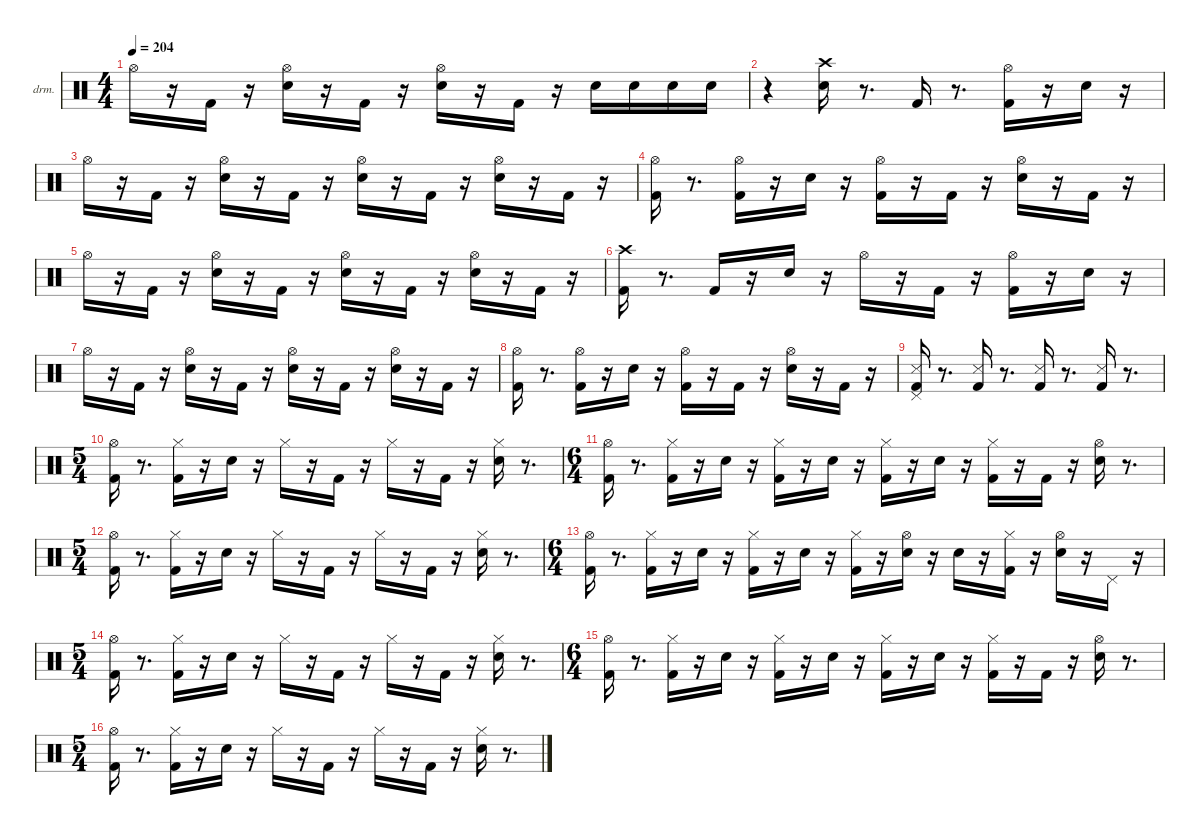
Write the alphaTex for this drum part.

\hideDynamics
\bracketExtendMode nobrackets
\firstSystemTrackNameOrientation horizontal
\track ("drums" "drm.") {instrument percussion}
\staff {score}
\articulation defaults
\ts (4 4)
\tempo 204
\clef neutral
\ks aminor "Hi-Hat (open)"{acc #}.16{dy fff beam Down}
r.16{beam Down} "Kick (hit) 2".16{dy ff beam Down} r.16{beam Down} ("Snare (hit) 2" "Hi-Hat (open)"{acc #}).16{beam Down} r.16{beam Down} "Kick (hit) 2".16{beam Down} r.16{beam Down} ("Snare (hit) 2" "Hi-Hat (open)"{acc #}).16{beam Down} r.16{beam Down} "Kick (hit) 2".16{beam Down} r.16{beam Down} "Snare (hit) 2".16{beam Down} "Snare (hit) 2".16{dy mf beam Down} "Snare (hit) 2".16{dy f beam Down} "Snare (hit) 2".16{dy ff beam Down} |
r.4{beam Down} ("Snare (hit) 2" "Crash high (hit)"{acc #}).16{beam Down} r.8{d beam Down} "Kick (hit) 2".16{beam Up} r.8{d beam Down} ("Kick (hit) 2" "Hi-Hat (open)"{acc #}).16{dy fff beam Down} r.16{beam Down} "Snare (hit) 2".16{dy ff beam Down} r.16{beam Down} |
"Hi-Hat (open)"{acc #}.16{dy fff beam Down} r.16{beam Down} "Kick (hit) 2".16{dy ff beam Down} r.16{beam Down} ("Snare (hit) 2" "Hi-Hat (open)"{acc #}).16{beam Down} r.16{beam Down} "Kick (hit) 2".16{beam Down} r.16{beam Down} ("Snare (hit) 2" "Hi-Hat (open)"{acc #}).16{beam Down} r.16{beam Down} "Kick (hit) 2".16{beam Down} r.16{beam Down} ("Snare (hit) 2" "Hi-Hat (open)"{acc #}).16{beam Down} r.16{beam Down} "Kick (hit) 2".16{dy mf beam Down} r.16{beam Down} |
("Kick (hit) 2" "Hi-Hat (open)"{acc #}).16{dy fff beam Down} r.8{d beam Down} ("Kick (hit) 2" "Hi-Hat (open)"{acc #}).16{dy ff beam Down} r.16{beam Down} "Snare (hit) 2".16{beam Down} r.16{beam Down} ("Kick (hit) 2" "Hi-Hat (open)"{acc #}).16{dy mf beam Down} r.16{beam Down} "Kick (hit) 2".16{dy ff beam Down} r.16{beam Down} ("Snare (hit) 2" "Hi-Hat (open)"{acc #}).16{dy mf beam Down} r.16{beam Down} "Kick (hit) 2".16{dy ff beam Down} r.16{beam Down} |
"Hi-Hat (open)"{acc #}.16{dy fff beam Down} r.16{beam Down} "Kick (hit) 2".16{dy ff beam Down} r.16{beam Down} ("Snare (hit) 2" "Hi-Hat (open)"{acc #}).16{beam Down} r.16{beam Down} "Kick (hit) 2".16{beam Down} r.16{beam Down} ("Snare (hit) 2" "Hi-Hat (open)"{acc #}).16{beam Down} r.16{beam Down} "Kick (hit) 2".16{beam Down} r.16{beam Down} ("Snare (hit) 2" "Hi-Hat (open)"{acc #}).16{beam Down} r.16{beam Down} "Kick (hit) 2".16{dy mf beam Down} r.16{beam Down} |
("Kick (hit) 2" "Crash high (hit)"{acc #}).16{dy fff beam Down} r.8{d beam Down} "Kick (hit) 2".16{dy ff beam Up} r.16{beam Up} "Snare (hit) 2".16{beam Up} r.16{beam Down} "Hi-Hat (open)"{acc #}.16{dy f beam Down} r.16{beam Down} "Kick (hit) 2".16{beam Down} r.16{beam Down} ("Kick (hit) 2" "Hi-Hat (open)"{acc #}).16{dy ff beam Down} r.16{beam Down} "Snare (hit) 2".16{beam Down} r.16{beam Down} |
"Hi-Hat (open)"{acc #}.16{dy fff beam Down} r.16{beam Down} "Kick (hit) 2".16{dy ff beam Down} r.16{beam Down} ("Snare (hit) 2" "Hi-Hat (open)"{acc #}).16{beam Down} r.16{beam Down} "Kick (hit) 2".16{beam Down} r.16{beam Down} ("Snare (hit) 2" "Hi-Hat (open)"{acc #}).16{beam Down} r.16{beam Down} "Kick (hit) 2".16{beam Down} r.16{beam Down} ("Snare (hit) 2" "Hi-Hat (open)"{acc #}).16{beam Down} r.16{beam Down} "Kick (hit) 2".16{dy mf beam Down} r.16{beam Down} |
("Kick (hit) 2" "Hi-Hat (open)"{acc #}).16{dy fff beam Down} r.8{d beam Down} ("Kick (hit) 2" "Hi-Hat (open)"{acc #}).16{dy ff beam Down} r.16{beam Down} "Snare (hit) 2".16{beam Down} r.16{beam Down} ("Kick (hit) 2" "Hi-Hat (open)"{acc #}).16{dy f beam Down} r.16{beam Down} "Kick (hit) 2".16{dy ff beam Down} r.16{beam Down} ("Snare (hit) 2" "Hi-Hat (open)"{acc #}).16{dy mf beam Down} r.16{beam Down} "Kick (hit) 2".16{dy ff beam Down} r.16{beam Down} |
("Kick (hit) 2" "Snare (side stick) 3"{acc #} "Pedal Hi-Hat (hit)"{acc #}).16{dy f beam Up} r.8{d beam Down} ("Kick (hit) 2" "Snare (side stick) 3"{acc #}).16{dy mf beam Up} r.8{d beam Down} ("Kick (hit) 2" "Snare (side stick) 3"{acc #}).16{dy f beam Up} r.8{d beam Down} ("Kick (hit) 2" "Snare (side stick) 3"{acc #}).16{dy mf beam Up} r.8{d beam Down} |
\ts (5 4)
("Kick (hit) 2" "Hi-Hat (open)"{acc #}).16{dy fff beam Down} r.8{d beam Down} ("Kick (hit) 2" "Hi-Hat (closed)"{acc #}).16{dy ff beam Down} r.16{beam Down} "Snare (hit) 2".16{dy f beam Down} r.16{beam Down} "Hi-Hat (closed)"{acc #}.16{dy ff beam Down} r.16{beam Down} "Kick (hit) 2".16{beam Down} r.16{beam Down} "Hi-Hat (closed)"{acc #}.16{dy f beam Down} r.16{beam Down} "Kick (hit) 2".16{dy ff beam Down} r.16{beam Down} ("Snare (hit) 2" "Hi-Hat (closed)"{acc #}).16{dy f beam Down} r.8{d beam Down} |
\ts (6 4)
("Kick (hit) 2" "Hi-Hat (open)"{acc #}).16{dy ff beam Down} r.8{d beam Down} ("Kick (hit) 2" "Hi-Hat (closed)"{acc #}).16{beam Down} r.16{beam Down} "Snare (hit) 2".16{dy f beam Down} r.16{beam Down} ("Kick (hit) 2" "Hi-Hat (closed)"{acc #}).16{dy ff beam Down} r.16{beam Down} "Snare (hit) 2".16{beam Down} r.16{beam Down} ("Kick (hit) 2" "Hi-Hat (closed)"{acc #}).16{beam Down} r.16{beam Down} "Snare (hit) 2".16{dy mf beam Down} r.16{beam Down} ("Kick (hit) 2" "Hi-Hat (closed)"{acc #}).16{dy f beam Down} r.16{beam Down} "Kick (hit) 2".16{dy ff beam Down} r.16{beam Down} ("Snare (hit) 2" "Hi-Hat (open)"{acc #}).16{beam Down} r.8{d beam Down} |
\ts (5 4)
("Kick (hit) 2" "Hi-Hat (open)"{acc #}).16{beam Down} r.8{d beam Down} ("Kick (hit) 2" "Hi-Hat (closed)"{acc #}).16{beam Down} r.16{beam Down} "Snare (hit) 2".16{dy f beam Down} r.16{beam Down} "Hi-Hat (closed)"{acc #}.16{dy ff beam Down} r.16{beam Down} "Kick (hit) 2".16{beam Down} r.16{beam Down} "Hi-Hat (closed)"{acc #}.16{beam Down} r.16{beam Down} "Kick (hit) 2".16{beam Down} r.16{beam Down} ("Snare (hit) 2" "Hi-Hat (closed)"{acc #}).16{beam Down} r.8{d beam Down} |
\ts (6 4)
("Kick (hit) 2" "Hi-Hat (open)"{acc #}).16{beam Down} r.8{d beam Down} ("Kick (hit) 2" "Hi-Hat (closed)"{acc #}).16{beam Down} r.16{beam Down} "Snare (hit) 2".16{dy f beam Down} r.16{beam Down} ("Kick (hit) 2" "Hi-Hat (closed)"{acc #}).16{dy ff beam Down} r.16{beam Down} "Snare (hit) 2".16{beam Down} r.16{beam Down} ("Kick (hit) 2" "Hi-Hat (closed)"{acc #}).16{dy f beam Down} r.16{beam Down} ("Snare (hit) 2" "Hi-Hat (open)"{acc #}).16{dy ff beam Down} r.16{beam Down} "Snare (hit) 2".16{dy mf beam Down} r.16{beam Down} ("Kick (hit) 2" "Hi-Hat (closed)"{acc #}).16{dy ff beam Down} r.16{beam Down} ("Snare (hit) 2" "Hi-Hat (open)"{acc #}).16{beam Down} r.16{beam Down} "Pedal Hi-Hat (hit)"{acc #}.16{dy f beam Down} r.16{beam Down} |
\ts (5 4)
("Kick (hit) 2" "Hi-Hat (open)"{acc #}).16{dy ff beam Down} r.8{d beam Down} ("Kick (hit) 2" "Hi-Hat (closed)"{acc #}).16{beam Down} r.16{beam Down} "Snare (hit) 2".16{dy f beam Down} r.16{beam Down} "Hi-Hat (closed)"{acc #}.16{dy ff beam Down} r.16{beam Down} "Kick (hit) 2".16{beam Down} r.16{beam Down} "Hi-Hat (closed)"{acc #}.16{dy f beam Down} r.16{beam Down} "Kick (hit) 2".16{dy ff beam Down} r.16{beam Down} ("Snare (hit) 2" "Hi-Hat (closed)"{acc #}).16{dy f beam Down} r.8{d beam Down} |
\ts (6 4)
("Kick (hit) 2" "Hi-Hat (open)"{acc #}).16{dy ff beam Down} r.8{d beam Down} ("Kick (hit) 2" "Hi-Hat (closed)"{acc #}).16{beam Down} r.16{beam Down} "Snare (hit) 2".16{dy f beam Down} r.16{beam Down} ("Kick (hit) 2" "Hi-Hat (closed)"{acc #}).16{dy ff beam Down} r.16{beam Down} "Snare (hit) 2".16{beam Down} r.16{beam Down} ("Kick (hit) 2" "Hi-Hat (closed)"{acc #}).16{beam Down} r.16{beam Down} "Snare (hit) 2".16{dy mf beam Down} r.16{beam Down} ("Kick (hit) 2" "Hi-Hat (closed)"{acc #}).16{dy f beam Down} r.16{beam Down} "Kick (hit) 2".16{dy ff beam Down} r.16{beam Down} ("Snare (hit) 2" "Hi-Hat (open)"{acc #}).16{beam Down} r.8{d beam Down} |
\ts (5 4)
("Kick (hit) 2" "Hi-Hat (open)"{acc #}).16{beam Down} r.8{d beam Down} ("Kick (hit) 2" "Hi-Hat (closed)"{acc #}).16{beam Down} r.16{beam Down} "Snare (hit) 2".16{dy f beam Down} r.16{beam Down} "Hi-Hat (closed)"{acc #}.16{dy ff beam Down} r.16{beam Down} "Kick (hit) 2".16{beam Down} r.16{beam Down} "Hi-Hat (closed)"{acc #}.16{dy f beam Down} r.16{beam Down} "Kick (hit) 2".16{dy ff beam Down} r.16{beam Down} ("Snare (hit) 2" "Hi-Hat (closed)"{acc #}).16{beam Down} r.8{d beam Down}
